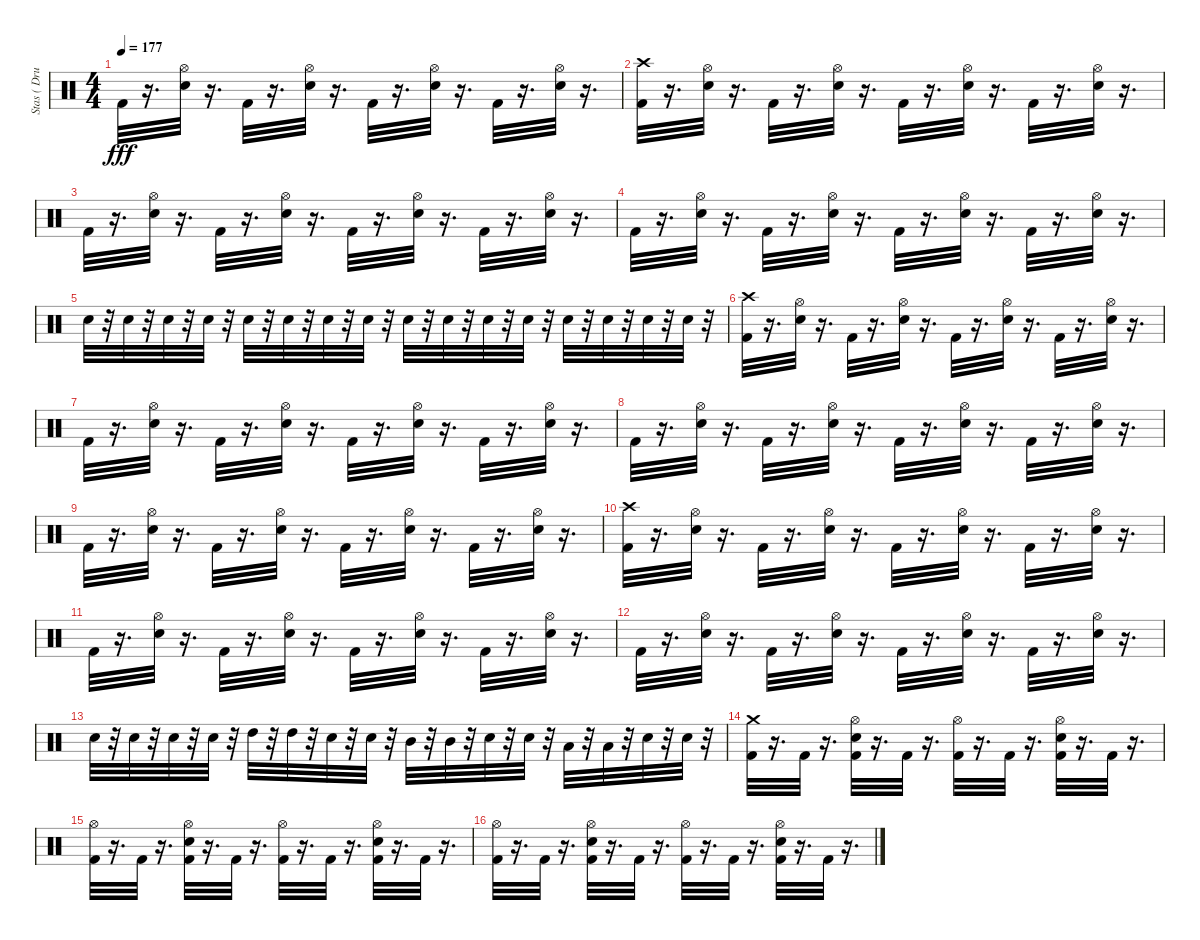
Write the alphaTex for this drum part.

\track ("Stas ( Drums )" "Stas ( Dru") {instrument percussion}
\staff {score}
\articulation defaults
\ts (4 4)
\tempo 177
\clef neutral
\ks c "Kick (hit) 2".32{dy fff}
r.16{d} ("Electric Snare (hit)" "Hi-Hat (open)").32 r.16{d} "Kick (hit) 2".32 r.16{d} ("Electric Snare (hit)" "Hi-Hat (open)").32 r.16{d} "Kick (hit) 2".32 r.16{d} ("Electric Snare (hit)" "Hi-Hat (open)").32 r.16{d} "Kick (hit) 2".32 r.16{d} ("Electric Snare (hit)" "Hi-Hat (open)").32 r.16{d} |
("Kick (hit) 2" "Crash high (hit)").32 r.16{d} ("Electric Snare (hit)" "Hi-Hat (open)").32 r.16{d} "Kick (hit) 2".32 r.16{d} ("Electric Snare (hit)" "Hi-Hat (open)").32 r.16{d} "Kick (hit) 2".32 r.16{d} ("Electric Snare (hit)" "Hi-Hat (open)").32 r.16{d} "Kick (hit) 2".32 r.16{d} ("Electric Snare (hit)" "Hi-Hat (open)").32 r.16{d} |
"Kick (hit) 2".32 r.16{d} ("Electric Snare (hit)" "Hi-Hat (open)").32 r.16{d} "Kick (hit) 2".32 r.16{d} ("Electric Snare (hit)" "Hi-Hat (open)").32 r.16{d} "Kick (hit) 2".32 r.16{d} ("Electric Snare (hit)" "Hi-Hat (open)").32 r.16{d} "Kick (hit) 2".32 r.16{d} ("Electric Snare (hit)" "Hi-Hat (open)").32 r.16{d} |
"Kick (hit) 2".32 r.16{d} ("Electric Snare (hit)" "Hi-Hat (open)").32 r.16{d} "Kick (hit) 2".32 r.16{d} ("Electric Snare (hit)" "Hi-Hat (open)").32 r.16{d} "Kick (hit) 2".32 r.16{d} ("Electric Snare (hit)" "Hi-Hat (open)").32 r.16{d} "Kick (hit) 2".32 r.16{d} ("Electric Snare (hit)" "Hi-Hat (open)").32 r.16{d} |
"Electric Snare (hit)".32 r.32 "Electric Snare (hit)".32 r.32 "Electric Snare (hit)".32 r.32 "Electric Snare (hit)".32 r.32 "Electric Snare (hit)".32 r.32 "Electric Snare (hit)".32 r.32 "Electric Snare (hit)".32 r.32 "Electric Snare (hit)".32 r.32 "Electric Snare (hit)".32 r.32 "Electric Snare (hit)".32 r.32 "Electric Snare (hit)".32 r.32 "Electric Snare (hit)".32 r.32 "Electric Snare (hit)".32 r.32 "Electric Snare (hit)".32 r.32 "Electric Snare (hit)".32 r.32 "Electric Snare (hit)".32 r.32 |
("Kick (hit) 2" "Crash high (hit)").32 r.16{d} ("Electric Snare (hit)" "Hi-Hat (open)").32 r.16{d} "Kick (hit) 2".32 r.16{d} ("Electric Snare (hit)" "Hi-Hat (open)").32 r.16{d} "Kick (hit) 2".32 r.16{d} ("Electric Snare (hit)" "Hi-Hat (open)").32 r.16{d} "Kick (hit) 2".32 r.16{d} ("Electric Snare (hit)" "Hi-Hat (open)").32 r.16{d} |
"Kick (hit) 2".32 r.16{d} ("Electric Snare (hit)" "Hi-Hat (open)").32 r.16{d} "Kick (hit) 2".32 r.16{d} ("Electric Snare (hit)" "Hi-Hat (open)").32 r.16{d} "Kick (hit) 2".32 r.16{d} ("Electric Snare (hit)" "Hi-Hat (open)").32 r.16{d} "Kick (hit) 2".32 r.16{d} ("Electric Snare (hit)" "Hi-Hat (open)").32 r.16{d} |
"Kick (hit) 2".32 r.16{d} ("Electric Snare (hit)" "Hi-Hat (open)").32 r.16{d} "Kick (hit) 2".32 r.16{d} ("Electric Snare (hit)" "Hi-Hat (open)").32 r.16{d} "Kick (hit) 2".32 r.16{d} ("Electric Snare (hit)" "Hi-Hat (open)").32 r.16{d} "Kick (hit) 2".32 r.16{d} ("Electric Snare (hit)" "Hi-Hat (open)").32 r.16{d} |
"Kick (hit) 2".32 r.16{d} ("Electric Snare (hit)" "Hi-Hat (open)").32 r.16{d} "Kick (hit) 2".32 r.16{d} ("Electric Snare (hit)" "Hi-Hat (open)").32 r.16{d} "Kick (hit) 2".32 r.16{d} ("Electric Snare (hit)" "Hi-Hat (open)").32 r.16{d} "Kick (hit) 2".32 r.16{d} ("Electric Snare (hit)" "Hi-Hat (open)").32 r.16{d} |
("Kick (hit) 2" "Crash high (hit)").32 r.16{d} ("Electric Snare (hit)" "Hi-Hat (open)").32 r.16{d} "Kick (hit) 2".32 r.16{d} ("Electric Snare (hit)" "Hi-Hat (open)").32 r.16{d} "Kick (hit) 2".32 r.16{d} ("Electric Snare (hit)" "Hi-Hat (open)").32 r.16{d} "Kick (hit) 2".32 r.16{d} ("Electric Snare (hit)" "Hi-Hat (open)").32 r.16{d} |
"Kick (hit) 2".32 r.16{d} ("Electric Snare (hit)" "Hi-Hat (open)").32 r.16{d} "Kick (hit) 2".32 r.16{d} ("Electric Snare (hit)" "Hi-Hat (open)").32 r.16{d} "Kick (hit) 2".32 r.16{d} ("Electric Snare (hit)" "Hi-Hat (open)").32 r.16{d} "Kick (hit) 2".32 r.16{d} ("Electric Snare (hit)" "Hi-Hat (open)").32 r.16{d} |
"Kick (hit) 2".32 r.16{d} ("Electric Snare (hit)" "Hi-Hat (open)").32 r.16{d} "Kick (hit) 2".32 r.16{d} ("Electric Snare (hit)" "Hi-Hat (open)").32 r.16{d} "Kick (hit) 2".32 r.16{d} ("Electric Snare (hit)" "Hi-Hat (open)").32 r.16{d} "Kick (hit) 2".32 r.16{d} ("Electric Snare (hit)" "Hi-Hat (open)").32 r.16{d} |
"Electric Snare (hit)".32 r.32 "Electric Snare (hit)".32 r.32 "Electric Snare (hit)".32 r.32 "Electric Snare (hit)".32 r.32 "High Tom (hit)".32 r.32 "High Tom (hit)".32 r.32 "Electric Snare (hit)".32 r.32 "Electric Snare (hit)".32 r.32 "Mid Tom (hit)".32 r.32 "Mid Tom (hit)".32 r.32 "Electric Snare (hit)".32 r.32 "Electric Snare (hit)".32 r.32 "Low Tom (hit)".32 r.32 "Low Tom (hit)".32 r.32 "Electric Snare (hit)".32 r.32 "Electric Snare (hit)".32 r.32 |
("Kick (hit) 2" "Crash medium (hit)").32 r.16{d} "Kick (hit) 2".32 r.16{d} ("Kick (hit) 2" "Electric Snare (hit)" "Hi-Hat (open)").32 r.16{d} "Kick (hit) 2".32 r.16{d} ("Kick (hit) 2" "Hi-Hat (open)").32 r.16{d} "Kick (hit) 2".32 r.16{d} ("Kick (hit) 2" "Electric Snare (hit)" "Hi-Hat (open)").32 r.16{d} "Kick (hit) 2".32 r.16{d} |
("Kick (hit) 2" "Hi-Hat (open)").32 r.16{d} "Kick (hit) 2".32 r.16{d} ("Kick (hit) 2" "Electric Snare (hit)" "Hi-Hat (open)").32 r.16{d} "Kick (hit) 2".32 r.16{d} ("Kick (hit) 2" "Hi-Hat (open)").32 r.16{d} "Kick (hit) 2".32 r.16{d} ("Kick (hit) 2" "Electric Snare (hit)" "Hi-Hat (open)").32 r.16{d} "Kick (hit) 2".32 r.16{d} |
("Kick (hit) 2" "Hi-Hat (open)").32 r.16{d} "Kick (hit) 2".32 r.16{d} ("Kick (hit) 2" "Electric Snare (hit)" "Hi-Hat (open)").32 r.16{d} "Kick (hit) 2".32 r.16{d} ("Kick (hit) 2" "Hi-Hat (open)").32 r.16{d} "Kick (hit) 2".32 r.16{d} ("Kick (hit) 2" "Electric Snare (hit)" "Hi-Hat (open)").32 r.16{d} "Kick (hit) 2".32 r.16{d}
